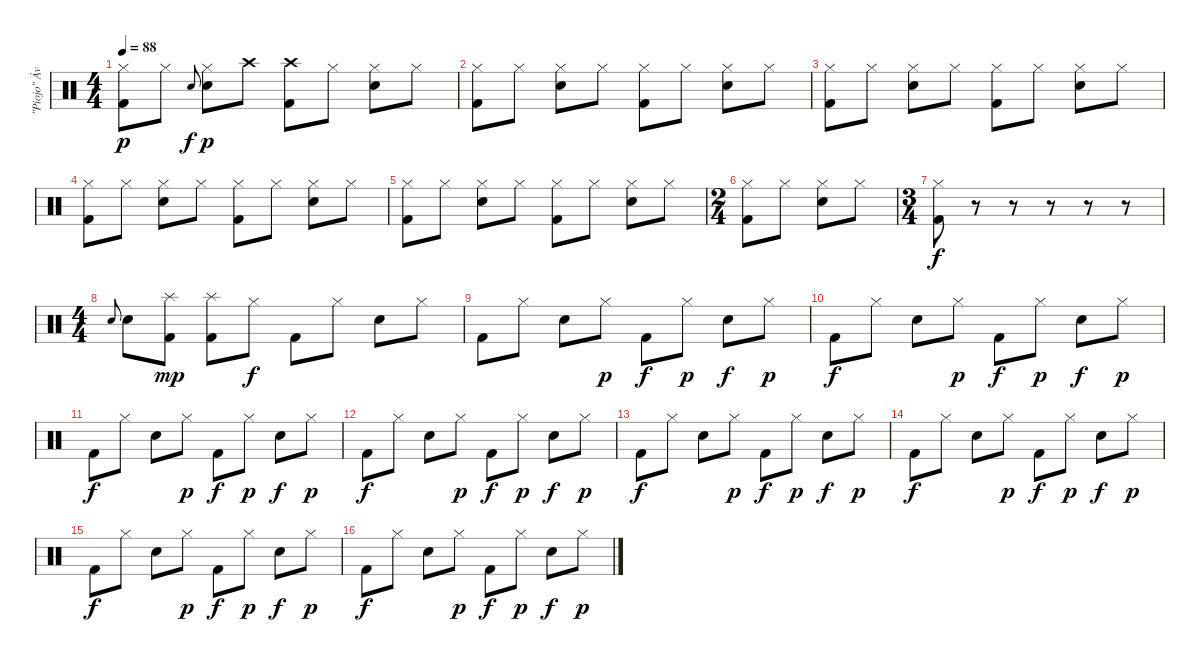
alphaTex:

\track ("\"Piojo\" Ávalos" "\"Piojo\" Áv") {instrument percussion}
\staff {score}
\articulation defaults
\ts (4 4)
\tempo 88
\clef neutral
\ks c
("Hi-Hat (closed)" "Kick (hit) 2").8{dy p} "Hi-Hat (closed)".8 "Snare (hit) 2".8{gr onbeat dy f} ("Hi-Hat (closed)" "Snare (hit) 2").8{dy p} "Crash high (hit)".8 ("Crash high (hit)" "Kick (hit) 2").8 "Hi-Hat (closed)".8 ("Hi-Hat (closed)" "Snare (hit) 2").8 "Hi-Hat (closed)".8 |
("Hi-Hat (closed)" "Kick (hit) 2").8 "Hi-Hat (closed)".8 ("Hi-Hat (closed)" "Snare (hit) 2").8 "Hi-Hat (closed)".8 ("Hi-Hat (closed)" "Kick (hit) 2").8 "Hi-Hat (closed)".8 ("Hi-Hat (closed)" "Snare (hit) 2").8 "Hi-Hat (closed)".8 |
("Hi-Hat (closed)" "Kick (hit) 2").8 "Hi-Hat (closed)".8 ("Hi-Hat (closed)" "Snare (hit) 2").8 "Hi-Hat (closed)".8 ("Hi-Hat (closed)" "Kick (hit) 2").8 "Hi-Hat (closed)".8 ("Hi-Hat (closed)" "Snare (hit) 2").8 "Hi-Hat (closed)".8 |
("Hi-Hat (closed)" "Kick (hit) 2").8 "Hi-Hat (closed)".8 ("Hi-Hat (closed)" "Snare (hit) 2").8 "Hi-Hat (closed)".8 ("Hi-Hat (closed)" "Kick (hit) 2").8 "Hi-Hat (closed)".8 ("Hi-Hat (closed)" "Snare (hit) 2").8 "Hi-Hat (closed)".8 |
("Hi-Hat (closed)" "Kick (hit) 2").8 "Hi-Hat (closed)".8 ("Hi-Hat (closed)" "Snare (hit) 2").8 "Hi-Hat (closed)".8 ("Hi-Hat (closed)" "Kick (hit) 2").8 "Hi-Hat (closed)".8 ("Hi-Hat (closed)" "Snare (hit) 2").8 "Hi-Hat (closed)".8 |
\ts (2 4)
("Hi-Hat (closed)" "Kick (hit) 2").8 "Hi-Hat (closed)".8 ("Hi-Hat (closed)" "Snare (hit) 2").8 "Hi-Hat (closed)".8 |
\ts (3 4)
("Hi-Hat (closed)" "Kick (hit) 2").8{dy f} r.8 r.8 r.8 r.8 r.8 |
\ts (4 4)
"Snare (hit) 2".8{gr onbeat} "Snare (hit) 2".8 ("Splash (hit)" "Kick (hit) 2").8{dy mp} ("Splash (hit)" "Kick (hit) 2").8 "Hi-Hat (closed)".8{dy f} "Kick (hit) 2".8 "Hi-Hat (closed)".8 "Snare (hit) 2".8 "Hi-Hat (closed)".8 |
"Kick (hit) 2".8 "Hi-Hat (closed)".8 "Snare (hit) 2".8 "Hi-Hat (closed)".8{dy p} "Kick (hit) 2".8{dy f} "Hi-Hat (closed)".8{dy p} "Snare (hit) 2".8{dy f} "Hi-Hat (closed)".8{dy p} |
"Kick (hit) 2".8{dy f} "Hi-Hat (closed)".8 "Snare (hit) 2".8 "Hi-Hat (closed)".8{dy p} "Kick (hit) 2".8{dy f} "Hi-Hat (closed)".8{dy p} "Snare (hit) 2".8{dy f} "Hi-Hat (closed)".8{dy p} |
"Kick (hit) 2".8{dy f} "Hi-Hat (closed)".8 "Snare (hit) 2".8 "Hi-Hat (closed)".8{dy p} "Kick (hit) 2".8{dy f} "Hi-Hat (closed)".8{dy p} "Snare (hit) 2".8{dy f} "Hi-Hat (closed)".8{dy p} |
"Kick (hit) 2".8{dy f} "Hi-Hat (closed)".8 "Snare (hit) 2".8 "Hi-Hat (closed)".8{dy p} "Kick (hit) 2".8{dy f} "Hi-Hat (closed)".8{dy p} "Snare (hit) 2".8{dy f} "Hi-Hat (closed)".8{dy p} |
"Kick (hit) 2".8{dy f} "Hi-Hat (closed)".8 "Snare (hit) 2".8 "Hi-Hat (closed)".8{dy p} "Kick (hit) 2".8{dy f} "Hi-Hat (closed)".8{dy p} "Snare (hit) 2".8{dy f} "Hi-Hat (closed)".8{dy p} |
"Kick (hit) 2".8{dy f} "Hi-Hat (closed)".8 "Snare (hit) 2".8 "Hi-Hat (closed)".8{dy p} "Kick (hit) 2".8{dy f} "Hi-Hat (closed)".8{dy p} "Snare (hit) 2".8{dy f} "Hi-Hat (closed)".8{dy p} |
"Kick (hit) 2".8{dy f} "Hi-Hat (closed)".8 "Snare (hit) 2".8 "Hi-Hat (closed)".8{dy p} "Kick (hit) 2".8{dy f} "Hi-Hat (closed)".8{dy p} "Snare (hit) 2".8{dy f} "Hi-Hat (closed)".8{dy p} |
"Kick (hit) 2".8{dy f} "Hi-Hat (closed)".8 "Snare (hit) 2".8 "Hi-Hat (closed)".8{dy p} "Kick (hit) 2".8{dy f} "Hi-Hat (closed)".8{dy p} "Snare (hit) 2".8{dy f} "Hi-Hat (closed)".8{dy p}
